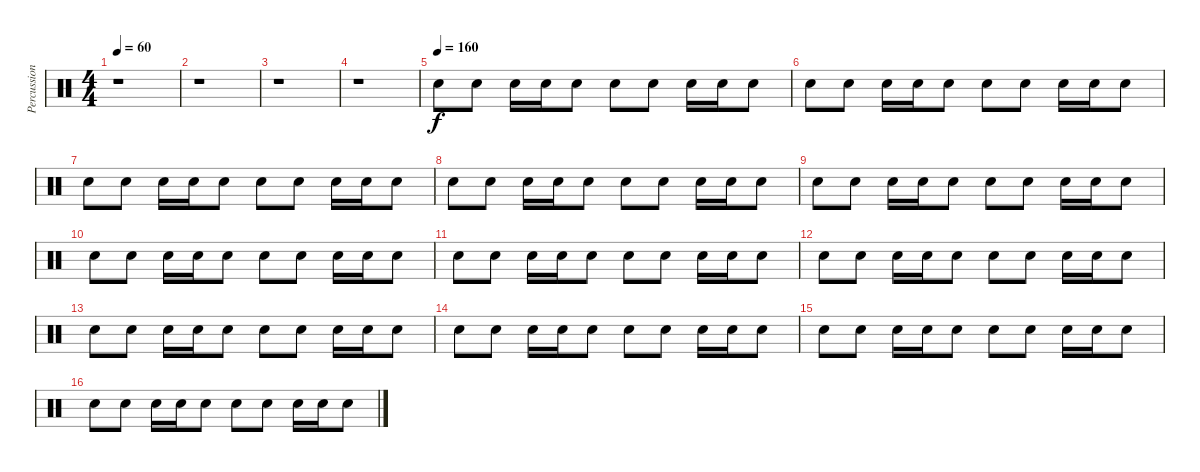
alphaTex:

\track ("Percussions" "Percussion") {instrument percussion}
\staff {score}
\articulation defaults
\ts (4 4)
\tempo 60
\clef neutral
\ks c
r.1{dy f} |
r.1 |
r.1 |
r.1 |
\tempo (160)
"Snare (hit) 2".8 "Snare (hit) 2".8 "Snare (hit) 2".16 "Snare (hit) 2".16 "Snare (hit) 2".8 "Snare (hit) 2".8 "Snare (hit) 2".8 "Snare (hit) 2".16 "Snare (hit) 2".16 "Snare (hit) 2".8 |
"Snare (hit) 2".8 "Snare (hit) 2".8 "Snare (hit) 2".16 "Snare (hit) 2".16 "Snare (hit) 2".8 "Snare (hit) 2".8 "Snare (hit) 2".8 "Snare (hit) 2".16 "Snare (hit) 2".16 "Snare (hit) 2".8 |
"Snare (hit) 2".8 "Snare (hit) 2".8 "Snare (hit) 2".16 "Snare (hit) 2".16 "Snare (hit) 2".8 "Snare (hit) 2".8 "Snare (hit) 2".8 "Snare (hit) 2".16 "Snare (hit) 2".16 "Snare (hit) 2".8 |
"Snare (hit) 2".8 "Snare (hit) 2".8 "Snare (hit) 2".16 "Snare (hit) 2".16 "Snare (hit) 2".8 "Snare (hit) 2".8 "Snare (hit) 2".8 "Snare (hit) 2".16 "Snare (hit) 2".16 "Snare (hit) 2".8 |
"Snare (hit) 2".8 "Snare (hit) 2".8 "Snare (hit) 2".16 "Snare (hit) 2".16 "Snare (hit) 2".8 "Snare (hit) 2".8 "Snare (hit) 2".8 "Snare (hit) 2".16 "Snare (hit) 2".16 "Snare (hit) 2".8 |
"Snare (hit) 2".8 "Snare (hit) 2".8 "Snare (hit) 2".16 "Snare (hit) 2".16 "Snare (hit) 2".8 "Snare (hit) 2".8 "Snare (hit) 2".8 "Snare (hit) 2".16 "Snare (hit) 2".16 "Snare (hit) 2".8 |
"Snare (hit) 2".8 "Snare (hit) 2".8 "Snare (hit) 2".16 "Snare (hit) 2".16 "Snare (hit) 2".8 "Snare (hit) 2".8 "Snare (hit) 2".8 "Snare (hit) 2".16 "Snare (hit) 2".16 "Snare (hit) 2".8 |
"Snare (hit) 2".8 "Snare (hit) 2".8 "Snare (hit) 2".16 "Snare (hit) 2".16 "Snare (hit) 2".8 "Snare (hit) 2".8 "Snare (hit) 2".8 "Snare (hit) 2".16 "Snare (hit) 2".16 "Snare (hit) 2".8 |
"Snare (hit) 2".8 "Snare (hit) 2".8 "Snare (hit) 2".16 "Snare (hit) 2".16 "Snare (hit) 2".8 "Snare (hit) 2".8 "Snare (hit) 2".8 "Snare (hit) 2".16 "Snare (hit) 2".16 "Snare (hit) 2".8 |
"Snare (hit) 2".8 "Snare (hit) 2".8 "Snare (hit) 2".16 "Snare (hit) 2".16 "Snare (hit) 2".8 "Snare (hit) 2".8 "Snare (hit) 2".8 "Snare (hit) 2".16 "Snare (hit) 2".16 "Snare (hit) 2".8 |
"Snare (hit) 2".8 "Snare (hit) 2".8 "Snare (hit) 2".16 "Snare (hit) 2".16 "Snare (hit) 2".8 "Snare (hit) 2".8 "Snare (hit) 2".8 "Snare (hit) 2".16 "Snare (hit) 2".16 "Snare (hit) 2".8 |
"Snare (hit) 2".8 "Snare (hit) 2".8 "Snare (hit) 2".16 "Snare (hit) 2".16 "Snare (hit) 2".8 "Snare (hit) 2".8 "Snare (hit) 2".8 "Snare (hit) 2".16 "Snare (hit) 2".16 "Snare (hit) 2".8
